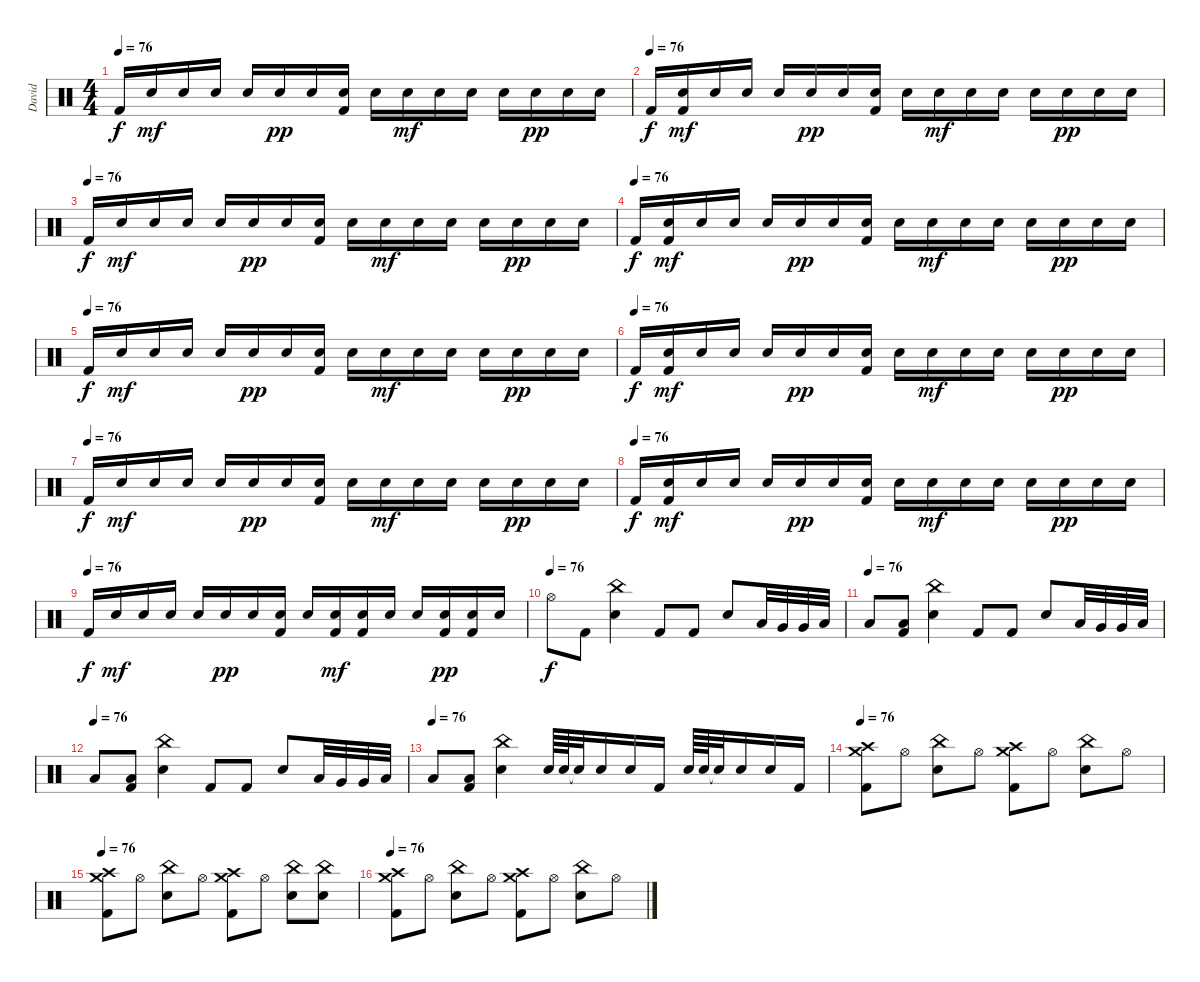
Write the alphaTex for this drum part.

\track ("David" "David") {instrument percussion}
\staff {score}
\articulation defaults
\ts (4 4)
\tempo 76
\clef neutral
\ks c "Kick (hit) 2".16{dy f} "Snare (hit) 2".16{dy mf} "Snare (hit) 2".16 "Snare (hit) 2".16 "Snare (hit) 2".16 "Snare (hit) 2".16{dy pp} "Snare (hit) 2".16
("Snare (hit) 2" "Kick (hit) 2").16 "Snare (hit) 2".16 "Snare (hit) 2".16{dy mf} "Snare (hit) 2".16 "Snare (hit) 2".16 "Snare (hit) 2".16 "Snare (hit) 2".16{dy pp} "Snare (hit) 2".16 "Snare (hit) 2".16 |
\tempo (76)
"Kick (hit) 2".16{dy f} ("Snare (hit) 2" "Kick (hit) 2").16{dy mf} "Snare (hit) 2".16 "Snare (hit) 2".16 "Snare (hit) 2".16 "Snare (hit) 2".16{dy pp} "Snare (hit) 2".16 ("Snare (hit) 2" "Kick (hit) 2").16 "Snare (hit) 2".16 "Snare (hit) 2".16{dy mf} "Snare (hit) 2".16 "Snare (hit) 2".16 "Snare (hit) 2".16 "Snare (hit) 2".16{dy pp} "Snare (hit) 2".16 "Snare (hit) 2".16 |
\tempo (76)
"Kick (hit) 2".16{dy f} "Snare (hit) 2".16{dy mf} "Snare (hit) 2".16 "Snare (hit) 2".16 "Snare (hit) 2".16 "Snare (hit) 2".16{dy pp} "Snare (hit) 2".16 ("Snare (hit) 2" "Kick (hit) 2").16 "Snare (hit) 2".16 "Snare (hit) 2".16{dy mf} "Snare (hit) 2".16 "Snare (hit) 2".16 "Snare (hit) 2".16 "Snare (hit) 2".16{dy pp} "Snare (hit) 2".16 "Snare (hit) 2".16 |
\tempo (76)
"Kick (hit) 2".16{dy f} ("Snare (hit) 2" "Kick (hit) 2").16{dy mf} "Snare (hit) 2".16 "Snare (hit) 2".16 "Snare (hit) 2".16 "Snare (hit) 2".16{dy pp} "Snare (hit) 2".16 ("Snare (hit) 2" "Kick (hit) 2").16 "Snare (hit) 2".16 "Snare (hit) 2".16{dy mf} "Snare (hit) 2".16 "Snare (hit) 2".16 "Snare (hit) 2".16 "Snare (hit) 2".16{dy pp} "Snare (hit) 2".16 "Snare (hit) 2".16 |
\tempo (76)
"Kick (hit) 2".16{dy f} "Snare (hit) 2".16{dy mf} "Snare (hit) 2".16 "Snare (hit) 2".16 "Snare (hit) 2".16 "Snare (hit) 2".16{dy pp} "Snare (hit) 2".16 ("Snare (hit) 2" "Kick (hit) 2").16 "Snare (hit) 2".16 "Snare (hit) 2".16{dy mf} "Snare (hit) 2".16 "Snare (hit) 2".16 "Snare (hit) 2".16 "Snare (hit) 2".16{dy pp} "Snare (hit) 2".16 "Snare (hit) 2".16 |
\tempo (76)
"Kick (hit) 2".16{dy f} ("Snare (hit) 2" "Kick (hit) 2").16{dy mf} "Snare (hit) 2".16 "Snare (hit) 2".16 "Snare (hit) 2".16 "Snare (hit) 2".16{dy pp} "Snare (hit) 2".16 ("Snare (hit) 2" "Kick (hit) 2").16 "Snare (hit) 2".16 "Snare (hit) 2".16{dy mf} "Snare (hit) 2".16 "Snare (hit) 2".16 "Snare (hit) 2".16 "Snare (hit) 2".16{dy pp} "Snare (hit) 2".16 "Snare (hit) 2".16 |
\tempo (76)
"Kick (hit) 2".16{dy f} "Snare (hit) 2".16{dy mf} "Snare (hit) 2".16 "Snare (hit) 2".16 "Snare (hit) 2".16 "Snare (hit) 2".16{dy pp} "Snare (hit) 2".16 ("Snare (hit) 2" "Kick (hit) 2").16 "Snare (hit) 2".16 "Snare (hit) 2".16{dy mf} "Snare (hit) 2".16 "Snare (hit) 2".16 "Snare (hit) 2".16 "Snare (hit) 2".16{dy pp} "Snare (hit) 2".16 "Snare (hit) 2".16 |
\tempo (76)
"Kick (hit) 2".16{dy f} ("Snare (hit) 2" "Kick (hit) 2").16{dy mf} "Snare (hit) 2".16 "Snare (hit) 2".16 "Snare (hit) 2".16 "Snare (hit) 2".16{dy pp} "Snare (hit) 2".16 ("Snare (hit) 2" "Kick (hit) 2").16 "Snare (hit) 2".16 "Snare (hit) 2".16{dy mf} "Snare (hit) 2".16 "Snare (hit) 2".16 "Snare (hit) 2".16 "Snare (hit) 2".16{dy pp} "Snare (hit) 2".16 "Snare (hit) 2".16 |
\tempo (76)
"Kick (hit) 2".16{dy f} "Snare (hit) 2".16{dy mf} "Snare (hit) 2".16 "Snare (hit) 2".16 "Snare (hit) 2".16 "Snare (hit) 2".16{dy pp} "Snare (hit) 2".16 ("Snare (hit) 2" "Kick (hit) 2").16 "Snare (hit) 2".16 ("Snare (hit) 2" "Kick (hit) 2").16{dy mf} ("Snare (hit) 2" "Kick (hit) 2").16 "Snare (hit) 2".16 "Snare (hit) 2".16 ("Snare (hit) 2" "Kick (hit) 2").16{dy pp} ("Snare (hit) 2" "Kick (hit) 2").16 "Snare (hit) 2".16 |
\tempo (76)
"Hi-Hat (open)".8{dy f} "Kick (hit) 2".8 ("China (hit)" "Snare (hit) 2").4 "Kick (hit) 2".8 "Kick (hit) 2".8 "Snare (hit) 2".8 "Low Tom (hit)".32 "Very Low Tom (hit)".32 "Very Low Tom (hit)".32 "Low Floor Tom (hit)".32 |
\tempo (76)
"Low Floor Tom (hit)".8 ("Low Floor Tom (hit)" "Kick (hit) 2").8 ("China (hit)" "Snare (hit) 2").4 "Kick (hit) 2".8 "Kick (hit) 2".8 "Snare (hit) 2".8 "Low Tom (hit)".32 "Very Low Tom (hit)".32 "Very Low Tom (hit)".32 "Low Floor Tom (hit)".32 |
\tempo (76)
"Low Floor Tom (hit)".8 ("Low Floor Tom (hit)" "Kick (hit) 2").8 ("China (hit)" "Snare (hit) 2").4 "Kick (hit) 2".8 "Kick (hit) 2".8 "Snare (hit) 2".8 "Low Tom (hit)".32 "Very Low Tom (hit)".32 "Very Low Tom (hit)".32 "Low Floor Tom (hit)".32 |
\tempo (76)
"Low Floor Tom (hit)".8 ("Low Floor Tom (hit)" "Kick (hit) 2").8 ("China (hit)" "Snare (hit) 2").4 "Snare (hit) 2".64 "Snare (hit) 2".64 "Snare (hit)"{t}.32 "Snare (hit) 2".16 "Snare (hit) 2".16 "Kick (hit) 2".16 "Snare (hit) 2".64 "Snare (hit) 2".64 "Snare (hit)"{t}.32 "Snare (hit) 2".16 "Snare (hit) 2".16 "Kick (hit) 2".16 |
\tempo 76
("Crash medium (hit)" "Crash high (hit)" "Kick (hit) 2").8 "Hi-Hat (open)".8 ("China (hit)" "Snare (hit) 2").8 "Hi-Hat (open)".8 ("Crash medium (hit)" "Crash high (hit)" "Kick (hit) 2").8 "Hi-Hat (open)".8 ("China (hit)" "Snare (hit) 2").8 "Hi-Hat (open)".8 |
\tempo 76
("Crash medium (hit)" "Crash high (hit)" "Kick (hit) 2").8 "Hi-Hat (open)".8 ("China (hit)" "Snare (hit) 2").8 "Hi-Hat (open)".8 ("Crash medium (hit)" "Crash high (hit)" "Kick (hit) 2").8 "Hi-Hat (open)".8 ("China (hit)" "Snare (hit) 2").8 ("China (hit)" "Snare (hit) 2").8 |
\tempo 76
("Crash high (hit)" "Crash medium (hit)" "Kick (hit) 2").8 "Hi-Hat (open)".8 ("China (hit)" "Snare (hit) 2").8 "Hi-Hat (open)".8 ("Crash medium (hit)" "Crash high (hit)" "Kick (hit) 2").8 "Hi-Hat (open)".8 ("China (hit)" "Snare (hit) 2").8 "Hi-Hat (open)".8
